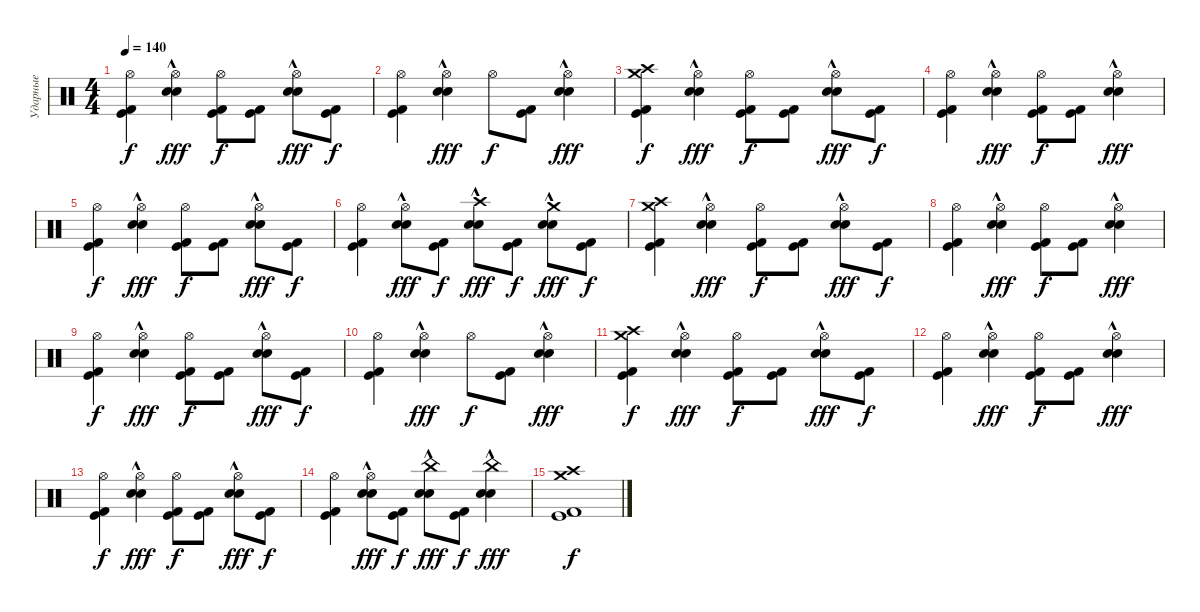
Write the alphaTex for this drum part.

\track ("Ударные" "Ударные") {instrument percussion}
\staff {score}
\articulation defaults
\ts (4 4)
\tempo 140
\clef neutral
\ks c
("Hi-Hat (open)" "Kick (hit)" "Kick (hit) 2").4{dy f} ("Hi-Hat (open)" "Snare (hit) 2"{hac} "Electric Snare (hit)"{hac}).4{dy fff} ("Hi-Hat (open)" "Kick (hit)" "Kick (hit) 2").8{dy f} ("Kick (hit)" "Kick (hit) 2").8 ("Hi-Hat (open)" "Snare (hit) 2"{hac} "Electric Snare (hit)"{hac}).8{dy fff} ("Kick (hit)" "Kick (hit) 2").8{dy f} |
("Hi-Hat (open)" "Kick (hit)" "Kick (hit) 2").4 ("Hi-Hat (open)" "Snare (hit) 2"{hac} "Electric Snare (hit)"{hac}).4{dy fff} "Hi-Hat (open)".8{dy f} ("Kick (hit)" "Kick (hit) 2").8 ("Hi-Hat (open)" "Snare (hit) 2"{hac} "Electric Snare (hit)"{hac}).4{dy fff} |
("Crash high (hit)" "Kick (hit)" "Kick (hit) 2" "Crash medium (hit)").4{dy f} ("Hi-Hat (open)" "Snare (hit) 2"{hac} "Electric Snare (hit)"{hac}).4{dy fff} ("Hi-Hat (open)" "Kick (hit)" "Kick (hit) 2").8{dy f} ("Kick (hit)" "Kick (hit) 2").8 ("Hi-Hat (open)" "Snare (hit) 2"{hac} "Electric Snare (hit)"{hac}).8{dy fff} ("Kick (hit)" "Kick (hit) 2").8{dy f} |
("Hi-Hat (open)" "Kick (hit)" "Kick (hit) 2").4 ("Hi-Hat (open)" "Snare (hit) 2"{hac} "Electric Snare (hit)"{hac}).4{dy fff} ("Hi-Hat (open)" "Kick (hit)" "Kick (hit) 2").8{dy f} ("Kick (hit)" "Kick (hit) 2").8 ("Hi-Hat (open)" "Snare (hit) 2"{hac} "Electric Snare (hit)"{hac}).4{dy fff} |
("Hi-Hat (open)" "Kick (hit)" "Kick (hit) 2").4{dy f} ("Hi-Hat (open)" "Snare (hit) 2"{hac} "Electric Snare (hit)"{hac}).4{dy fff} ("Hi-Hat (open)" "Kick (hit)" "Kick (hit) 2").8{dy f} ("Kick (hit)" "Kick (hit) 2").8 ("Hi-Hat (open)" "Snare (hit) 2"{hac} "Electric Snare (hit)"{hac}).8{dy fff} ("Kick (hit)" "Kick (hit) 2").8{dy f} |
("Hi-Hat (open)" "Kick (hit)" "Kick (hit) 2").4 ("Hi-Hat (open)" "Snare (hit) 2"{hac} "Electric Snare (hit)"{hac}).8{dy fff} ("Kick (hit)" "Kick (hit) 2").8{dy f} ("Crash high (hit)" "Snare (hit) 2"{hac} "Electric Snare (hit)"{hac}).8{dy fff} ("Kick (hit)" "Kick (hit) 2").8{dy f} ("Crash medium (hit)" "Snare (hit) 2"{hac} "Electric Snare (hit)"{hac}).8{dy fff} ("Kick (hit)" "Kick (hit) 2").8{dy f} |
("Crash high (hit)" "Kick (hit)" "Kick (hit) 2" "Crash medium (hit)").4 ("Hi-Hat (open)" "Snare (hit) 2"{hac} "Electric Snare (hit)"{hac}).4{dy fff} ("Hi-Hat (open)" "Kick (hit)" "Kick (hit) 2").8{dy f} ("Kick (hit)" "Kick (hit) 2").8 ("Hi-Hat (open)" "Snare (hit) 2"{hac} "Electric Snare (hit)"{hac}).8{dy fff} ("Kick (hit)" "Kick (hit) 2").8{dy f} |
("Hi-Hat (open)" "Kick (hit)" "Kick (hit) 2").4 ("Hi-Hat (open)" "Snare (hit) 2"{hac} "Electric Snare (hit)"{hac}).4{dy fff} ("Hi-Hat (open)" "Kick (hit)" "Kick (hit) 2").8{dy f} ("Kick (hit)" "Kick (hit) 2").8 ("Hi-Hat (open)" "Snare (hit) 2"{hac} "Electric Snare (hit)"{hac}).4{dy fff} |
("Hi-Hat (open)" "Kick (hit)" "Kick (hit) 2").4{dy f} ("Hi-Hat (open)" "Snare (hit) 2"{hac} "Electric Snare (hit)"{hac}).4{dy fff} ("Hi-Hat (open)" "Kick (hit)" "Kick (hit) 2").8{dy f} ("Kick (hit)" "Kick (hit) 2").8 ("Hi-Hat (open)" "Snare (hit) 2"{hac} "Electric Snare (hit)"{hac}).8{dy fff} ("Kick (hit)" "Kick (hit) 2").8{dy f} |
("Hi-Hat (open)" "Kick (hit)" "Kick (hit) 2").4 ("Hi-Hat (open)" "Snare (hit) 2"{hac} "Electric Snare (hit)"{hac}).4{dy fff} "Hi-Hat (open)".8{dy f} ("Kick (hit)" "Kick (hit) 2").8 ("Hi-Hat (open)" "Snare (hit) 2"{hac} "Electric Snare (hit)"{hac}).4{dy fff} |
("Crash high (hit)" "Kick (hit)" "Kick (hit) 2" "Crash medium (hit)").4{dy f} ("Hi-Hat (open)" "Snare (hit) 2"{hac} "Electric Snare (hit)"{hac}).4{dy fff} ("Hi-Hat (open)" "Kick (hit)" "Kick (hit) 2").8{dy f} ("Kick (hit)" "Kick (hit) 2").8 ("Hi-Hat (open)" "Snare (hit) 2"{hac} "Electric Snare (hit)"{hac}).8{dy fff} ("Kick (hit)" "Kick (hit) 2").8{dy f} |
("Hi-Hat (open)" "Kick (hit)" "Kick (hit) 2").4 ("Hi-Hat (open)" "Snare (hit) 2"{hac} "Electric Snare (hit)"{hac}).4{dy fff} ("Hi-Hat (open)" "Kick (hit)" "Kick (hit) 2").8{dy f} ("Kick (hit)" "Kick (hit) 2").8 ("Hi-Hat (open)" "Snare (hit) 2"{hac} "Electric Snare (hit)"{hac}).4{dy fff} |
("Hi-Hat (open)" "Kick (hit)" "Kick (hit) 2").4{dy f} ("Hi-Hat (open)" "Snare (hit) 2"{hac} "Electric Snare (hit)"{hac}).4{dy fff} ("Hi-Hat (open)" "Kick (hit)" "Kick (hit) 2").8{dy f} ("Kick (hit)" "Kick (hit) 2").8 ("Hi-Hat (open)" "Snare (hit) 2"{hac} "Electric Snare (hit)"{hac}).8{dy fff} ("Kick (hit)" "Kick (hit) 2").8{dy f} |
("Hi-Hat (open)" "Kick (hit)" "Kick (hit) 2").4 ("Hi-Hat (open)" "Snare (hit) 2"{hac} "Electric Snare (hit)"{hac}).8{dy fff} ("Kick (hit)" "Kick (hit) 2").8{dy f} ("China (hit)" "Snare (hit) 2"{hac} "Electric Snare (hit)"{hac}).8{dy fff} ("Kick (hit)" "Kick (hit) 2").8{dy f} ("China (hit)" "Snare (hit) 2"{hac} "Electric Snare (hit)"{hac}).4{dy fff} |
("Crash high (hit)" "Kick (hit)" "Kick (hit) 2" "Crash medium (hit)").1{dy f}
